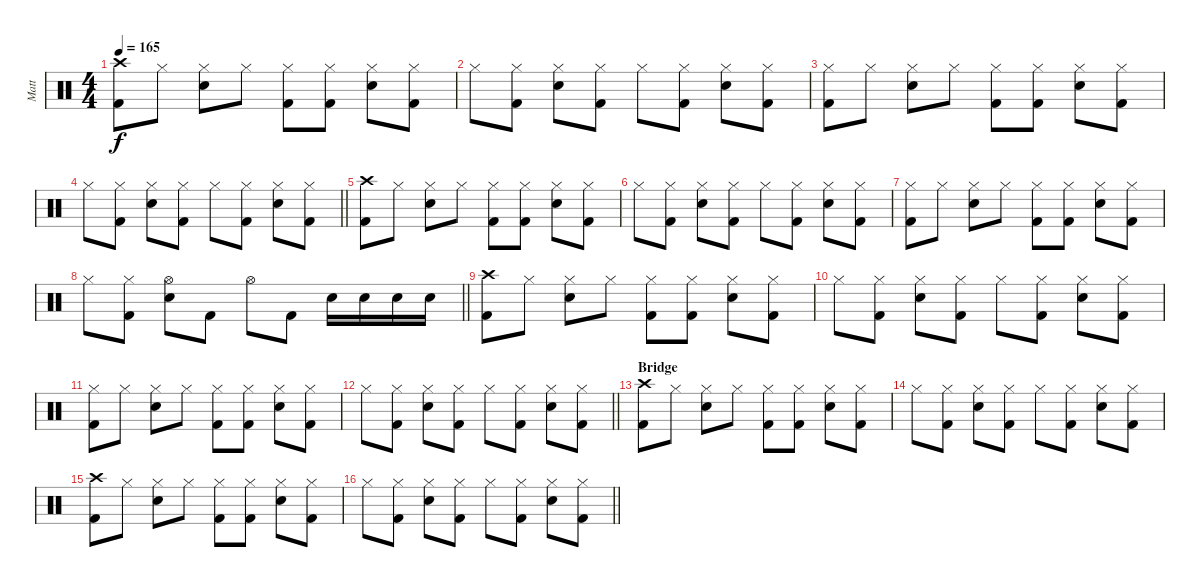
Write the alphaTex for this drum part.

\track ("Matt" "Matt") {instrument percussion}
\staff {score}
\articulation defaults
\ts (4 4)
\tempo 165
\clef neutral
\ks c
("Crash high (hit)" "Kick (hit) 2").8{dy f} "Hi-Hat (closed)".8 ("Hi-Hat (closed)" "Snare (hit) 2").8 "Hi-Hat (closed)".8 ("Hi-Hat (closed)" "Kick (hit) 2").8 ("Hi-Hat (closed)" "Kick (hit) 2").8 ("Hi-Hat (closed)" "Snare (hit) 2").8 ("Hi-Hat (closed)" "Kick (hit) 2").8 |
"Hi-Hat (closed)".8 ("Hi-Hat (closed)" "Kick (hit) 2").8 ("Hi-Hat (closed)" "Snare (hit) 2").8 ("Hi-Hat (closed)" "Kick (hit) 2").8 "Hi-Hat (closed)".8 ("Hi-Hat (closed)" "Kick (hit) 2").8 ("Hi-Hat (closed)" "Snare (hit) 2").8 ("Hi-Hat (closed)" "Kick (hit) 2").8 |
("Hi-Hat (closed)" "Kick (hit) 2").8 "Hi-Hat (closed)".8 ("Hi-Hat (closed)" "Snare (hit) 2").8 "Hi-Hat (closed)".8 ("Hi-Hat (closed)" "Kick (hit) 2").8 ("Hi-Hat (closed)" "Kick (hit) 2").8 ("Hi-Hat (closed)" "Snare (hit) 2").8 ("Hi-Hat (closed)" "Kick (hit) 2").8 |
\barLineRight lightlight "Hi-Hat (closed)".8
("Hi-Hat (closed)" "Kick (hit) 2").8 ("Hi-Hat (closed)" "Snare (hit) 2").8 ("Hi-Hat (closed)" "Kick (hit) 2").8 "Hi-Hat (closed)".8 ("Hi-Hat (closed)" "Kick (hit) 2").8 ("Hi-Hat (closed)" "Snare (hit) 2").8 ("Hi-Hat (closed)" "Kick (hit) 2").8 |
("Crash high (hit)" "Kick (hit) 2").8 "Hi-Hat (closed)".8 ("Hi-Hat (closed)" "Snare (hit) 2").8 "Hi-Hat (closed)".8 ("Hi-Hat (closed)" "Kick (hit) 2").8 ("Hi-Hat (closed)" "Kick (hit) 2").8 ("Hi-Hat (closed)" "Snare (hit) 2").8 ("Hi-Hat (closed)" "Kick (hit) 2").8 |
"Hi-Hat (closed)".8 ("Hi-Hat (closed)" "Kick (hit) 2").8 ("Hi-Hat (closed)" "Snare (hit) 2").8 ("Hi-Hat (closed)" "Kick (hit) 2").8 "Hi-Hat (closed)".8 ("Hi-Hat (closed)" "Kick (hit) 2").8 ("Hi-Hat (closed)" "Snare (hit) 2").8 ("Hi-Hat (closed)" "Kick (hit) 2").8 |
("Hi-Hat (closed)" "Kick (hit) 2").8 "Hi-Hat (closed)".8 ("Hi-Hat (closed)" "Snare (hit) 2").8 "Hi-Hat (closed)".8 ("Hi-Hat (closed)" "Kick (hit) 2").8 ("Hi-Hat (closed)" "Kick (hit) 2").8 ("Hi-Hat (closed)" "Snare (hit) 2").8 ("Hi-Hat (closed)" "Kick (hit) 2").8 |
\barLineRight lightlight "Hi-Hat (closed)".8
("Hi-Hat (closed)" "Kick (hit) 2").8 ("Hi-Hat (open)" "Snare (hit) 2").8 "Kick (hit) 2".8 "Hi-Hat (open)".8 "Kick (hit) 2".8 "Snare (hit) 2".16 "Snare (hit) 2".16 "Snare (hit) 2".16 "Snare (hit) 2".16 |
("Crash high (hit)" "Kick (hit) 2").8 "Hi-Hat (closed)".8 ("Hi-Hat (closed)" "Snare (hit) 2").8 "Hi-Hat (closed)".8 ("Hi-Hat (closed)" "Kick (hit) 2").8 ("Hi-Hat (closed)" "Kick (hit) 2").8 ("Hi-Hat (closed)" "Snare (hit) 2").8 ("Hi-Hat (closed)" "Kick (hit) 2").8 |
"Hi-Hat (closed)".8 ("Hi-Hat (closed)" "Kick (hit) 2").8 ("Hi-Hat (closed)" "Snare (hit) 2").8 ("Hi-Hat (closed)" "Kick (hit) 2").8 "Hi-Hat (closed)".8 ("Hi-Hat (closed)" "Kick (hit) 2").8 ("Hi-Hat (closed)" "Snare (hit) 2").8 ("Hi-Hat (closed)" "Kick (hit) 2").8 |
("Hi-Hat (closed)" "Kick (hit) 2").8 "Hi-Hat (closed)".8 ("Hi-Hat (closed)" "Snare (hit) 2").8 "Hi-Hat (closed)".8 ("Hi-Hat (closed)" "Kick (hit) 2").8 ("Hi-Hat (closed)" "Kick (hit) 2").8 ("Hi-Hat (closed)" "Snare (hit) 2").8 ("Hi-Hat (closed)" "Kick (hit) 2").8 |
\barLineRight lightlight "Hi-Hat (closed)".8
("Hi-Hat (closed)" "Kick (hit) 2").8 ("Hi-Hat (closed)" "Snare (hit) 2").8 ("Hi-Hat (closed)" "Kick (hit) 2").8 "Hi-Hat (closed)".8 ("Hi-Hat (closed)" "Kick (hit) 2").8 ("Hi-Hat (closed)" "Snare (hit) 2").8 ("Hi-Hat (closed)" "Kick (hit) 2").8 |
\section ("" "Bridge")
("Crash high (hit)" "Kick (hit) 2").8 "Hi-Hat (closed)".8 ("Hi-Hat (closed)" "Snare (hit) 2").8 "Hi-Hat (closed)".8 ("Hi-Hat (closed)" "Kick (hit) 2").8 ("Hi-Hat (closed)" "Kick (hit) 2").8 ("Hi-Hat (closed)" "Snare (hit) 2").8 ("Hi-Hat (closed)" "Kick (hit) 2").8 |
"Hi-Hat (closed)".8 ("Hi-Hat (closed)" "Kick (hit) 2").8 ("Hi-Hat (closed)" "Snare (hit) 2").8 ("Hi-Hat (closed)" "Kick (hit) 2").8 "Hi-Hat (closed)".8 ("Hi-Hat (closed)" "Kick (hit) 2").8 ("Hi-Hat (closed)" "Snare (hit) 2").8 ("Hi-Hat (closed)" "Kick (hit) 2").8 |
("Crash high (hit)" "Kick (hit) 2").8 "Hi-Hat (closed)".8 ("Hi-Hat (closed)" "Snare (hit) 2").8 "Hi-Hat (closed)".8 ("Hi-Hat (closed)" "Kick (hit) 2").8 ("Hi-Hat (closed)" "Kick (hit) 2").8 ("Hi-Hat (closed)" "Snare (hit) 2").8 ("Hi-Hat (closed)" "Kick (hit) 2").8 |
\barLineRight lightlight "Hi-Hat (closed)".8
("Hi-Hat (closed)" "Kick (hit) 2").8 ("Hi-Hat (closed)" "Snare (hit) 2").8 ("Hi-Hat (closed)" "Kick (hit) 2").8 "Hi-Hat (closed)".8 ("Hi-Hat (closed)" "Kick (hit) 2").8 ("Hi-Hat (closed)" "Snare (hit) 2").8 ("Hi-Hat (closed)" "Kick (hit) 2").8
